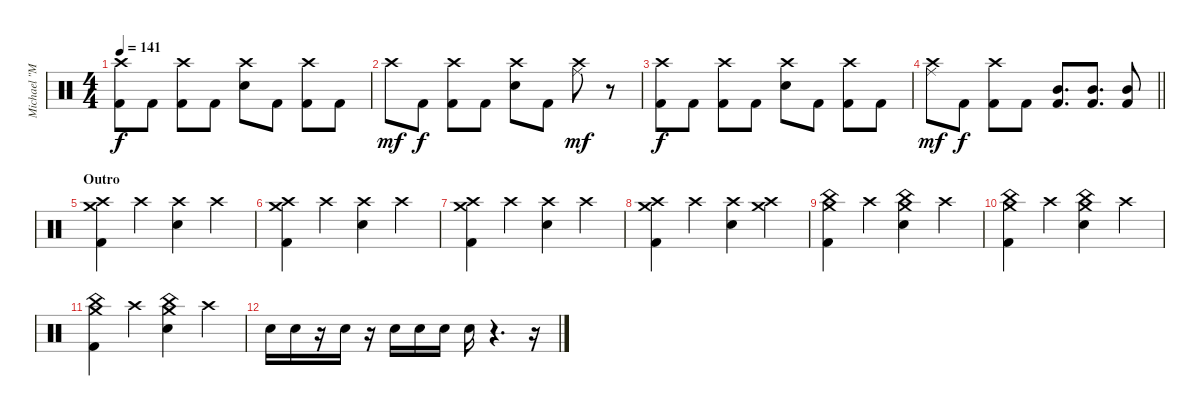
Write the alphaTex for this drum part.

\track ("Michael \"Moose\" Thomas" "Michael \"M") {instrument percussion}
\staff {score}
\articulation defaults
\ts (4 4)
\tempo 141
\clef neutral
\ks c
("Crash high (hit)" "Kick (hit) 2").8{dy f} "Kick (hit) 2".8 ("Crash high (hit)" "Kick (hit) 2").8 "Kick (hit) 2".8 ("Crash high (hit)" "Snare (hit) 2").8 "Kick (hit) 2".8 ("Crash high (hit)" "Kick (hit) 2").8 "Kick (hit) 2".8 |
"Crash high (hit)".8{dy mf} "Kick (hit) 2".8{dy f} ("Crash high (hit)" "Kick (hit) 2").8 "Kick (hit) 2".8 ("Crash high (hit)" "Snare (hit) 2").8 "Kick (hit) 2".8 ("Crash high (hit)" "Ride (middle)").8{dy mf} r.8 |
("Crash high (hit)" "Kick (hit) 2").8{dy f} "Kick (hit) 2".8 ("Crash high (hit)" "Kick (hit) 2").8 "Kick (hit) 2".8 ("Crash high (hit)" "Snare (hit) 2").8 "Kick (hit) 2".8 ("Crash high (hit)" "Kick (hit) 2").8 "Kick (hit) 2".8 |
\barLineRight lightlight
("Crash high (hit)" "Ride (middle)").8{dy mf} "Kick (hit) 2".8{dy f} ("Crash high (hit)" "Kick (hit) 2").8 "Kick (hit) 2".8 ("Mid Tom (hit)" "Kick (hit) 2").8{d} ("Mid Tom (hit)" "Kick (hit) 2").8{d} ("Mid Tom (hit)" "Kick (hit) 2").8 |
\section ("" "Outro")
("Crash high (hit)" "Crash medium (hit)" "Kick (hit) 2").4 "Crash high (hit)".4 ("Crash high (hit)" "Snare (hit) 2").4 "Crash high (hit)".4 |
("Crash high (hit)" "Crash medium (hit)" "Kick (hit) 2").4 "Crash high (hit)".4 ("Crash high (hit)" "Snare (hit) 2").4 "Crash high (hit)".4 |
("Crash high (hit)" "Crash medium (hit)" "Kick (hit) 2").4 "Crash high (hit)".4 ("Crash high (hit)" "Snare (hit) 2").4 "Crash high (hit)".4 |
("Crash high (hit)" "Crash medium (hit)" "Kick (hit) 2").4 "Crash high (hit)".4 ("Crash high (hit)" "Snare (hit) 2").4 ("Crash high (hit)" "Crash medium (hit)").4 |
("China (hit)" "Crash medium (hit)" "Kick (hit) 2").4 "Crash high (hit)".4 ("China (hit)" "Crash medium (hit)" "Snare (hit) 2").4 "Crash high (hit)".4 |
("China (hit)" "Crash medium (hit)" "Kick (hit) 2").4 "Crash high (hit)".4 ("China (hit)" "Crash medium (hit)" "Snare (hit) 2").4 "Crash high (hit)".4 |
("China (hit)" "Crash medium (hit)" "Kick (hit) 2").4 "Crash high (hit)".4 ("China (hit)" "Crash medium (hit)" "Snare (hit) 2").4 "Crash high (hit)".4 |
"Snare (hit) 2".16 "Snare (hit) 2".16 r.16 "Snare (hit) 2".16 r.16 "Snare (hit) 2".16 "Snare (hit) 2".16 "Snare (hit) 2".16 "Snare (hit) 2".16 r.4{d} r.16
